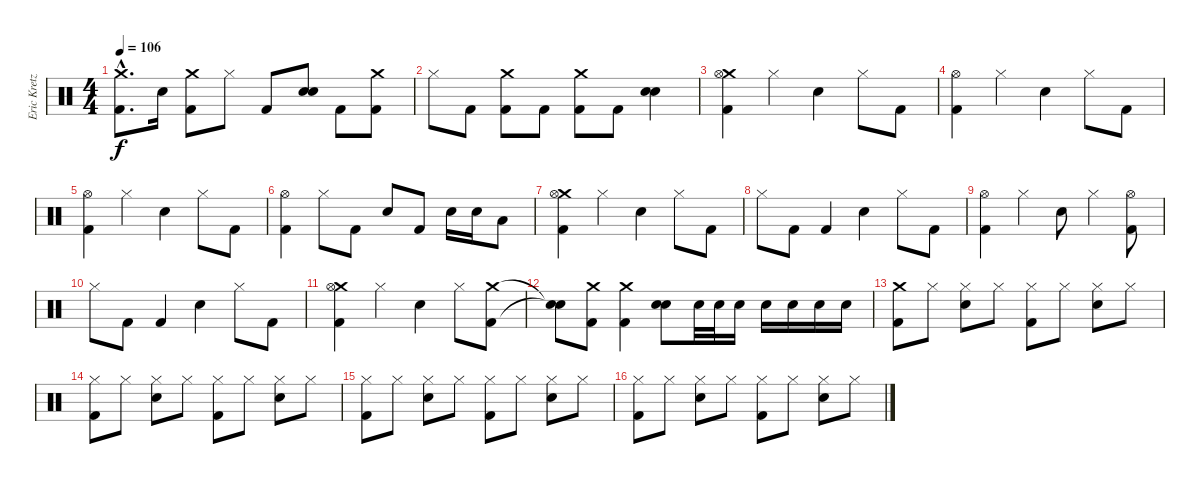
\track ("Eric Kretz" "Eric Kretz") {instrument percussion}
\staff {score}
\articulation defaults
\ts (4 4)
\tempo 106
\clef neutral
\ks c
("Crash medium (hit)"{hac} "Kick (hit) 2"{hac}).8{d dy f} "Electric Snare (hit)".16 ("Crash medium (hit)" "Kick (hit) 2").8 "Hi-Hat (closed)".8 "Kick (hit) 2".8 ("Electric Snare (hit)" "Electric Snare (hit)").8 "Kick (hit) 2".8 ("Crash medium (hit)" "Kick (hit) 2").8 |
"Hi-Hat (closed)".8 "Kick (hit) 2".8 ("Crash medium (hit)" "Kick (hit) 2").8 "Kick (hit) 2".8 ("Crash medium (hit)" "Kick (hit) 2").8 "Kick (hit) 2".8 ("Electric Snare (hit)" "Electric Snare (hit)").4 |
("Crash medium (hit)" "Hi-Hat (open)" "Kick (hit) 2").4 "Hi-Hat (closed)".4 "Electric Snare (hit)".4 "Hi-Hat (closed)".8 "Kick (hit) 2".8 |
("Hi-Hat (open)" "Kick (hit) 2").4 "Hi-Hat (closed)".4 "Electric Snare (hit)".4 "Hi-Hat (closed)".8 "Kick (hit) 2".8 |
("Hi-Hat (open)" "Kick (hit) 2").4 "Hi-Hat (closed)".4 "Electric Snare (hit)".4 "Hi-Hat (closed)".8 "Kick (hit) 2".8 |
("Hi-Hat (open)" "Kick (hit) 2").4 "Hi-Hat (closed)".8 "Kick (hit) 2".8 "Electric Snare (hit)".8 "Kick (hit) 2".8 "Electric Snare (hit)".16 "Electric Snare (hit)".16 "Low Tom (hit)".8 |
("Crash medium (hit)" "Hi-Hat (open)" "Kick (hit) 2").4 "Hi-Hat (closed)".4 "Electric Snare (hit)".4 "Hi-Hat (closed)".8 "Kick (hit) 2".8 |
"Hi-Hat (closed)".8 "Kick (hit) 2".8 "Kick (hit) 2".4 "Electric Snare (hit)".4 "Hi-Hat (closed)".8 "Kick (hit) 2".8 |
("Hi-Hat (open)" "Kick (hit) 2").4 "Hi-Hat (closed)".4 "Electric Snare (hit)".8 "Hi-Hat (closed)".4 ("Hi-Hat (open)" "Kick (hit) 2").8 |
"Hi-Hat (closed)".8 "Kick (hit) 2".8 "Kick (hit) 2".4 "Electric Snare (hit)".4 "Hi-Hat (closed)".8 "Kick (hit) 2".8 |
("Crash medium (hit)" "Hi-Hat (open)" "Kick (hit) 2").4 "Hi-Hat (closed)".4 "Electric Snare (hit)".4 "Hi-Hat (closed)".8 ("Crash medium (hit)" "Kick (hit) 2").8 |
("Snare (hit)"{t} "Snare (hit)"{t}).8 ("Crash medium (hit)" "Kick (hit) 2").8 ("Crash medium (hit)" "Kick (hit) 2").4 ("Electric Snare (hit)" "Electric Snare (hit)").8 "Electric Snare (hit)".32 "Electric Snare (hit)".32 "Electric Snare (hit)".16 "Electric Snare (hit)".16 "Electric Snare (hit)".16 "Electric Snare (hit)".16 "Electric Snare (hit)".16 |
("Crash medium (hit)" "Kick (hit) 2").8 "Hi-Hat (closed)".8 ("Hi-Hat (closed)" "Electric Snare (hit)").8 "Hi-Hat (closed)".8 ("Hi-Hat (closed)" "Kick (hit) 2").8 "Hi-Hat (closed)".8 ("Hi-Hat (closed)" "Electric Snare (hit)").8 "Hi-Hat (closed)".8 |
("Hi-Hat (closed)" "Kick (hit) 2").8 "Hi-Hat (closed)".8 ("Hi-Hat (closed)" "Electric Snare (hit)").8 "Hi-Hat (closed)".8 ("Hi-Hat (closed)" "Kick (hit) 2").8 "Hi-Hat (closed)".8 ("Hi-Hat (closed)" "Electric Snare (hit)").8 "Hi-Hat (closed)".8 |
("Hi-Hat (closed)" "Kick (hit) 2").8 "Hi-Hat (closed)".8 ("Hi-Hat (closed)" "Electric Snare (hit)").8 "Hi-Hat (closed)".8 ("Hi-Hat (closed)" "Kick (hit) 2").8 "Hi-Hat (closed)".8 ("Hi-Hat (closed)" "Electric Snare (hit)").8 "Hi-Hat (closed)".8 |
("Hi-Hat (closed)" "Kick (hit) 2").8 "Hi-Hat (closed)".8 ("Hi-Hat (closed)" "Electric Snare (hit)").8 "Hi-Hat (closed)".8 ("Hi-Hat (closed)" "Kick (hit) 2").8 "Hi-Hat (closed)".8 ("Hi-Hat (closed)" "Electric Snare (hit)").8 "Hi-Hat (closed)".8
